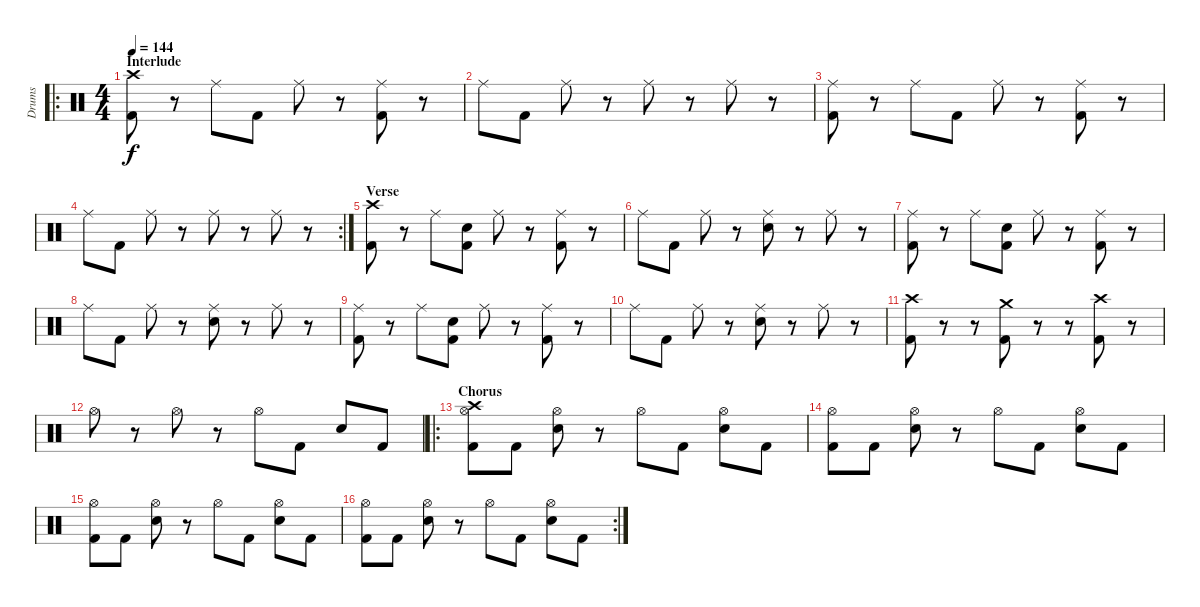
\track ("Drums" "Drums") {instrument percussion}
\staff {score}
\articulation defaults
\ro
\ts (4 4)
\section ("" "Interlude")
\tempo 144
\clef neutral
\ks c
("Crash high (hit)" "Kick (hit) 2").8{dy f} r.8 "Ride (middle)".8 "Kick (hit) 2".8 "Ride (middle)".8 r.8 ("Ride (middle)" "Kick (hit) 2").8 r.8 |
"Ride (middle)".8 "Kick (hit) 2".8 "Ride (middle)".8 r.8 "Ride (middle)".8 r.8 "Ride (middle)".8 r.8 |
("Ride (middle)" "Kick (hit) 2").8 r.8 "Ride (middle)".8 "Kick (hit) 2".8 "Ride (middle)".8 r.8 ("Ride (middle)" "Kick (hit) 2").8 r.8 |
\rc 2 "Ride (middle)".8 "Kick (hit) 2".8 "Ride (middle)".8
r.8 "Ride (middle)".8 r.8 "Ride (middle)".8 r.8 |
\section ("" "Verse")
("Crash high (hit)" "Kick (hit) 2").8 r.8 "Ride (middle)".8 ("Electric Snare (hit)" "Kick (hit) 2").8 "Ride (middle)".8 r.8 ("Ride (middle)" "Kick (hit) 2").8 r.8 |
"Ride (middle)".8 "Kick (hit) 2".8 "Ride (middle)".8 r.8 ("Ride (middle)" "Electric Snare (hit)").8 r.8 "Ride (middle)".8 r.8 |
("Ride (middle)" "Kick (hit) 2").8 r.8 "Ride (middle)".8 ("Electric Snare (hit)" "Kick (hit) 2").8 "Ride (middle)".8 r.8 ("Ride (middle)" "Kick (hit) 2").8 r.8 |
"Ride (middle)".8 "Kick (hit) 2".8 "Ride (middle)".8 r.8 ("Ride (middle)" "Electric Snare (hit)").8 r.8 "Ride (middle)".8 r.8 |
("Ride (middle)" "Kick (hit) 2").8 r.8 "Ride (middle)".8 ("Electric Snare (hit)" "Kick (hit) 2").8 "Ride (middle)".8 r.8 ("Ride (middle)" "Kick (hit) 2").8 r.8 |
"Ride (middle)".8 "Kick (hit) 2".8 "Ride (middle)".8 r.8 ("Ride (middle)" "Electric Snare (hit)").8 r.8 "Ride (middle)".8 r.8 |
("Crash high (hit)" "Kick (hit) 2").8 r.8 r.8 ("Crash medium (hit)" "Kick (hit) 2").8 r.8 r.8 ("Crash high (hit)" "Kick (hit) 2").8 r.8 |
"Hi-Hat (open)".8 r.8 "Hi-Hat (open)".8 r.8 "Hi-Hat (open)".8 "Kick (hit) 2".8 "Electric Snare (hit)".8 "Kick (hit) 2".8 |
\ro
\section ("" "Chorus")
("Crash high (hit)" "Hi-Hat (open)" "Kick (hit) 2").8 "Kick (hit) 2".8 ("Hi-Hat (open)" "Electric Snare (hit)").8 r.8 "Hi-Hat (open)".8 "Kick (hit) 2".8 ("Hi-Hat (open)" "Electric Snare (hit)").8 "Kick (hit) 2".8 |
("Hi-Hat (open)" "Kick (hit) 2").8 "Kick (hit) 2".8 ("Hi-Hat (open)" "Electric Snare (hit)").8 r.8 "Hi-Hat (open)".8 "Kick (hit) 2".8 ("Hi-Hat (open)" "Electric Snare (hit)").8 "Kick (hit) 2".8 |
("Hi-Hat (open)" "Kick (hit) 2").8 "Kick (hit) 2".8 ("Hi-Hat (open)" "Electric Snare (hit)").8 r.8 "Hi-Hat (open)".8 "Kick (hit) 2".8 ("Hi-Hat (open)" "Electric Snare (hit)").8 "Kick (hit) 2".8 |
\rc 2
("Hi-Hat (open)" "Kick (hit) 2").8 "Kick (hit) 2".8 ("Hi-Hat (open)" "Electric Snare (hit)").8 r.8 "Hi-Hat (open)".8 "Kick (hit) 2".8 ("Hi-Hat (open)" "Electric Snare (hit)").8 "Kick (hit) 2".8
